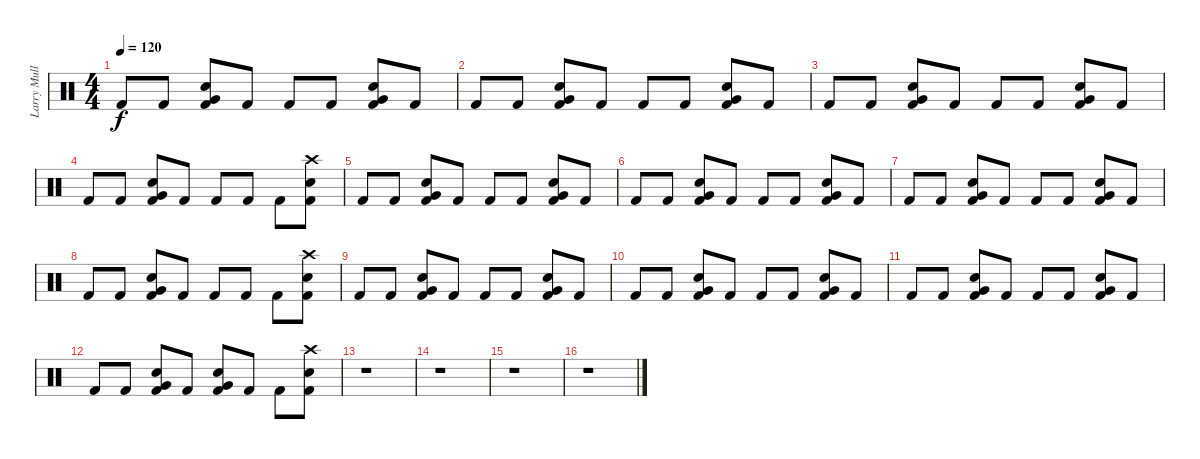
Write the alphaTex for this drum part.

\track ("Larry Mullen jr." "Larry Mull") {instrument percussion}
\staff {score}
\articulation defaults
\ts (4 4)
\tempo 120
\clef neutral
\ks c "Kick (hit) 2".8{dy f} "Kick (hit) 2".8
("Kick (hit) 2" "Electric Snare (hit)" "Very Low Tom (hit)").8 "Kick (hit) 2".8 "Kick (hit) 2".8 "Kick (hit) 2".8 ("Kick (hit) 2" "Electric Snare (hit)" "Very Low Tom (hit)").8 "Kick (hit) 2".8 |
"Kick (hit) 2".8 "Kick (hit) 2".8 ("Kick (hit) 2" "Electric Snare (hit)" "Very Low Tom (hit)").8 "Kick (hit) 2".8 "Kick (hit) 2".8 "Kick (hit) 2".8 ("Kick (hit) 2" "Electric Snare (hit)" "Very Low Tom (hit)").8 "Kick (hit) 2".8 |
"Kick (hit) 2".8 "Kick (hit) 2".8 ("Kick (hit) 2" "Electric Snare (hit)" "Very Low Tom (hit)").8 "Kick (hit) 2".8 "Kick (hit) 2".8 "Kick (hit) 2".8 ("Kick (hit) 2" "Electric Snare (hit)" "Very Low Tom (hit)").8 "Kick (hit) 2".8 |
"Kick (hit) 2".8 "Kick (hit) 2".8 ("Kick (hit) 2" "Electric Snare (hit)" "Very Low Tom (hit)").8 "Kick (hit) 2".8 "Kick (hit) 2".8 "Kick (hit) 2".8 "Kick (hit) 2".8 ("Kick (hit) 2" "Electric Snare (hit)" "Crash high (hit)").8 |
"Kick (hit) 2".8 "Kick (hit) 2".8 ("Kick (hit) 2" "Electric Snare (hit)" "Very Low Tom (hit)").8 "Kick (hit) 2".8 "Kick (hit) 2".8 "Kick (hit) 2".8 ("Kick (hit) 2" "Electric Snare (hit)" "Very Low Tom (hit)").8 "Kick (hit) 2".8 |
"Kick (hit) 2".8 "Kick (hit) 2".8 ("Kick (hit) 2" "Electric Snare (hit)" "Very Low Tom (hit)").8 "Kick (hit) 2".8 "Kick (hit) 2".8 "Kick (hit) 2".8 ("Kick (hit) 2" "Electric Snare (hit)" "Very Low Tom (hit)").8 "Kick (hit) 2".8 |
"Kick (hit) 2".8 "Kick (hit) 2".8 ("Kick (hit) 2" "Electric Snare (hit)" "Very Low Tom (hit)").8 "Kick (hit) 2".8 "Kick (hit) 2".8 "Kick (hit) 2".8 ("Kick (hit) 2" "Electric Snare (hit)" "Very Low Tom (hit)").8 "Kick (hit) 2".8 |
"Kick (hit) 2".8 "Kick (hit) 2".8 ("Kick (hit) 2" "Electric Snare (hit)" "Very Low Tom (hit)").8 "Kick (hit) 2".8 "Kick (hit) 2".8 "Kick (hit) 2".8 "Kick (hit) 2".8 ("Kick (hit) 2" "Electric Snare (hit)" "Crash high (hit)").8 |
"Kick (hit) 2".8 "Kick (hit) 2".8 ("Kick (hit) 2" "Electric Snare (hit)" "Very Low Tom (hit)").8 "Kick (hit) 2".8 "Kick (hit) 2".8 "Kick (hit) 2".8 ("Kick (hit) 2" "Electric Snare (hit)" "Very Low Tom (hit)").8 "Kick (hit) 2".8 |
"Kick (hit) 2".8 "Kick (hit) 2".8 ("Kick (hit) 2" "Electric Snare (hit)" "Very Low Tom (hit)").8 "Kick (hit) 2".8 "Kick (hit) 2".8 "Kick (hit) 2".8 ("Kick (hit) 2" "Electric Snare (hit)" "Very Low Tom (hit)").8 "Kick (hit) 2".8 |
"Kick (hit) 2".8 "Kick (hit) 2".8 ("Kick (hit) 2" "Electric Snare (hit)" "Very Low Tom (hit)").8 "Kick (hit) 2".8 "Kick (hit) 2".8 "Kick (hit) 2".8 ("Kick (hit) 2" "Electric Snare (hit)" "Very Low Tom (hit)").8 "Kick (hit) 2".8 |
"Kick (hit) 2".8 "Kick (hit) 2".8 ("Kick (hit) 2" "Electric Snare (hit)" "Very Low Tom (hit)").8 "Kick (hit) 2".8 ("Kick (hit) 2" "Electric Snare (hit)" "Very Low Tom (hit)").8 "Kick (hit) 2".8 "Kick (hit) 2".8 ("Kick (hit) 2" "Electric Snare (hit)" "Crash high (hit)").8 |
r.1 |
r.1 |
r.1 |
r.1
